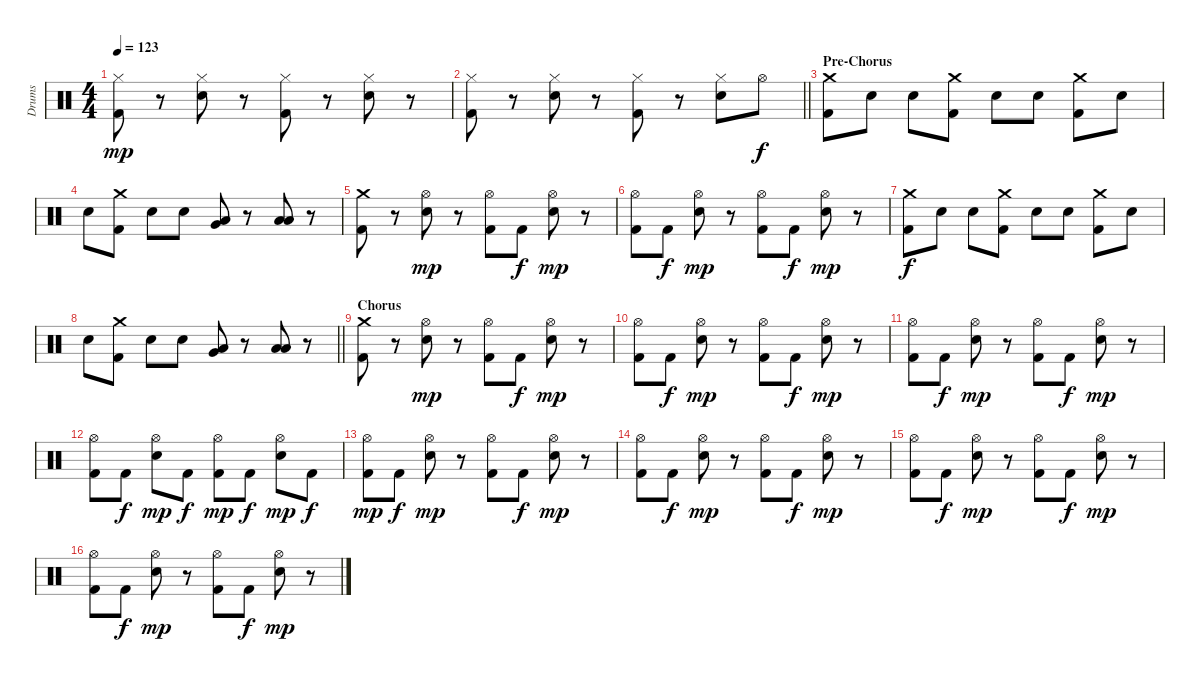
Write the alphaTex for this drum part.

\track ("Drums" "Drums") {instrument percussion}
\staff {score}
\articulation defaults
\ts (4 4)
\tempo 123
\clef neutral
\ks c
("Hi-Hat (closed)" "Kick (hit) 2").8{dy mp} r.8 ("Hi-Hat (closed)" "Snare (hit) 2").8 r.8 ("Hi-Hat (closed)" "Kick (hit) 2").8 r.8 ("Hi-Hat (closed)" "Snare (hit) 2").8 r.8 |
\barLineRight lightlight
("Hi-Hat (closed)" "Kick (hit) 2").8 r.8 ("Hi-Hat (closed)" "Snare (hit) 2").8 r.8 ("Hi-Hat (closed)" "Kick (hit) 2").8 r.8 ("Hi-Hat (closed)" "Snare (hit) 2").8 "Hi-Hat (open)".8{dy f} |
\section ("" "Pre-Chorus")
("Crash medium (hit)" "Kick (hit) 2").8 "Snare (hit) 2".8 "Snare (hit) 2".8 ("Crash medium (hit)" "Kick (hit) 2").8 "Snare (hit) 2".8 "Snare (hit) 2".8 ("Crash medium (hit)" "Kick (hit) 2").8 "Snare (hit) 2".8 |
"Snare (hit) 2".8 ("Crash medium (hit)" "Kick (hit) 2").8 "Snare (hit) 2".8 "Snare (hit) 2".8 ("Very Low Tom (hit)" "Low Floor Tom (hit)").8 r.8 ("Low Tom (hit)" "Low Floor Tom (hit)").8 r.8 |
("Crash medium (hit)" "Kick (hit) 2").8 r.8 ("Hi-Hat (open)" "Electric Snare (hit)").8{dy mp} r.8 ("Hi-Hat (open)" "Kick (hit) 2").8 "Kick (hit) 2".8{dy f} ("Hi-Hat (open)" "Electric Snare (hit)").8{dy mp} r.8 |
("Hi-Hat (open)" "Kick (hit) 2").8 "Kick (hit) 2".8{dy f} ("Hi-Hat (open)" "Electric Snare (hit)").8{dy mp} r.8 ("Hi-Hat (open)" "Kick (hit) 2").8 "Kick (hit) 2".8{dy f} ("Hi-Hat (open)" "Electric Snare (hit)").8{dy mp} r.8 |
("Crash medium (hit)" "Kick (hit) 2").8{dy f} "Snare (hit) 2".8 "Snare (hit) 2".8 ("Crash medium (hit)" "Kick (hit) 2").8 "Snare (hit) 2".8 "Snare (hit) 2".8 ("Crash medium (hit)" "Kick (hit) 2").8 "Snare (hit) 2".8 |
\barLineRight lightlight "Snare (hit) 2".8
("Crash medium (hit)" "Kick (hit) 2").8 "Snare (hit) 2".8 "Snare (hit) 2".8 ("Very Low Tom (hit)" "Low Floor Tom (hit)").8 r.8 ("Low Tom (hit)" "Low Floor Tom (hit)").8 r.8 |
\section ("" "Chorus")
("Crash medium (hit)" "Kick (hit) 2").8 r.8 ("Hi-Hat (open)" "Electric Snare (hit)").8{dy mp} r.8 ("Hi-Hat (open)" "Kick (hit) 2").8 "Kick (hit) 2".8{dy f} ("Hi-Hat (open)" "Electric Snare (hit)").8{dy mp} r.8 |
("Hi-Hat (open)" "Kick (hit) 2").8 "Kick (hit) 2".8{dy f} ("Hi-Hat (open)" "Electric Snare (hit)").8{dy mp} r.8 ("Hi-Hat (open)" "Kick (hit) 2").8 "Kick (hit) 2".8{dy f} ("Hi-Hat (open)" "Electric Snare (hit)").8{dy mp} r.8 |
("Hi-Hat (open)" "Kick (hit) 2").8 "Kick (hit) 2".8{dy f} ("Hi-Hat (open)" "Electric Snare (hit)").8{dy mp} r.8 ("Hi-Hat (open)" "Kick (hit) 2").8 "Kick (hit) 2".8{dy f} ("Hi-Hat (open)" "Electric Snare (hit)").8{dy mp} r.8 |
("Hi-Hat (open)" "Kick (hit) 2").8 "Kick (hit) 2".8{dy f} ("Hi-Hat (open)" "Electric Snare (hit)").8{dy mp} "Kick (hit) 2".8{dy f} ("Hi-Hat (open)" "Kick (hit) 2").8{dy mp} "Kick (hit) 2".8{dy f} ("Hi-Hat (open)" "Electric Snare (hit)").8{dy mp} "Kick (hit) 2".8{dy f} |
("Hi-Hat (open)" "Kick (hit) 2").8{dy mp} "Kick (hit) 2".8{dy f} ("Hi-Hat (open)" "Electric Snare (hit)").8{dy mp} r.8 ("Hi-Hat (open)" "Kick (hit) 2").8 "Kick (hit) 2".8{dy f} ("Hi-Hat (open)" "Electric Snare (hit)").8{dy mp} r.8 |
("Hi-Hat (open)" "Kick (hit) 2").8 "Kick (hit) 2".8{dy f} ("Hi-Hat (open)" "Electric Snare (hit)").8{dy mp} r.8 ("Hi-Hat (open)" "Kick (hit) 2").8 "Kick (hit) 2".8{dy f} ("Hi-Hat (open)" "Electric Snare (hit)").8{dy mp} r.8 |
("Hi-Hat (open)" "Kick (hit) 2").8 "Kick (hit) 2".8{dy f} ("Hi-Hat (open)" "Electric Snare (hit)").8{dy mp} r.8 ("Hi-Hat (open)" "Kick (hit) 2").8 "Kick (hit) 2".8{dy f} ("Hi-Hat (open)" "Electric Snare (hit)").8{dy mp} r.8 |
("Hi-Hat (open)" "Kick (hit) 2").8 "Kick (hit) 2".8{dy f} ("Hi-Hat (open)" "Electric Snare (hit)").8{dy mp} r.8 ("Hi-Hat (open)" "Kick (hit) 2").8 "Kick (hit) 2".8{dy f} ("Hi-Hat (open)" "Electric Snare (hit)").8{dy mp} r.8
